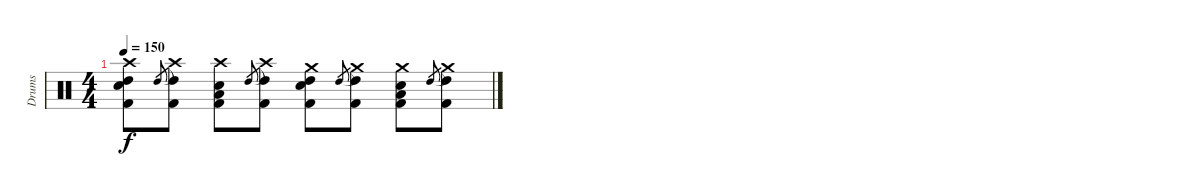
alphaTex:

\track ("Drums" "Drums") {instrument percussion}
\staff {score}
\articulation defaults
\ts (4 4)
\tempo 150
\clef neutral
\ks c
("Crash high (hit)" "High Tom (hit)" "Snare (hit) 2" "Kick (hit) 2").8{dy f} "High Tom (hit)".8{gr} ("Crash high (hit)"{t} "High Tom (hit)" "Kick (hit) 2").8 ("Crash high (hit)" "Low Tom (hit)" "Snare (hit) 2" "Kick (hit) 2").8 "High Tom (hit)".8{gr} ("Crash high (hit)"{t} "High Tom (hit)" "Kick (hit) 2").8 ("Crash medium (hit)" "High Tom (hit)" "Snare (hit) 2" "Kick (hit) 2").8 "High Tom (hit)".8{gr} ("Crash medium (hit)"{t} "High Tom (hit)" "Kick (hit) 2").8 ("Crash medium (hit)" "Low Tom (hit)" "Snare (hit) 2" "Kick (hit) 2").8 "High Tom (hit)".8{gr} ("Crash medium (hit)"{t} "High Tom (hit)" "Kick (hit) 2").8
